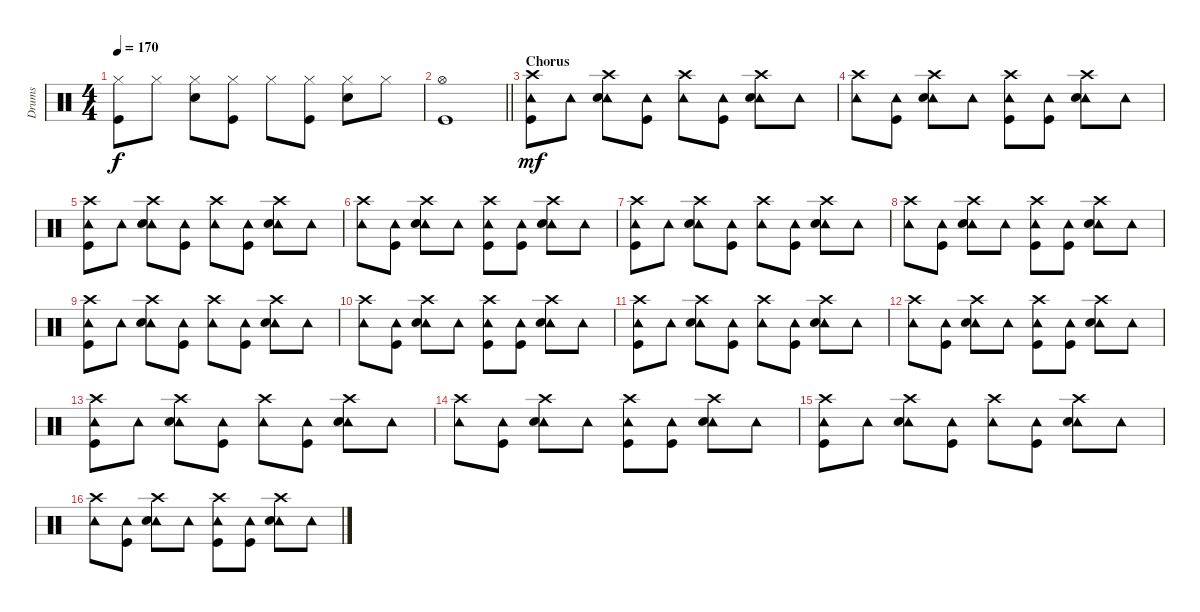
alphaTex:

\track ("Drums" "Drums") {instrument percussion}
\staff {score}
\articulation defaults
\ts (4 4)
\tempo 170
\clef neutral
\ks c
("Hi-Hat (closed)" "Kick (hit)").8{dy f} "Hi-Hat (closed)".8 ("Hi-Hat (closed)" "Snare (hit) 2").8 ("Hi-Hat (closed)" "Kick (hit)").8 "Hi-Hat (closed)".8 ("Hi-Hat (closed)" "Kick (hit)").8 ("Hi-Hat (closed)" "Snare (hit) 2").8 "Hi-Hat (closed)".8 |
\barLineRight lightlight
("Hi-Hat (open)" "Kick (hit)").1 |
\section ("" "Chorus")
("Tambourine (hit)" "Crash high (hit)" "Kick (hit)").8{dy mf} "Tambourine (hit)".8 ("Tambourine (hit)" "Crash high (hit)" "Snare (hit) 2").8 ("Tambourine (hit)" "Kick (hit)").8 ("Tambourine (hit)" "Crash high (hit)").8 ("Tambourine (hit)" "Kick (hit)").8 ("Tambourine (hit)" "Crash high (hit)" "Snare (hit) 2").8 "Tambourine (hit)".8 |
("Tambourine (hit)" "Crash high (hit)").8 ("Tambourine (hit)" "Kick (hit)").8 ("Tambourine (hit)" "Crash high (hit)" "Snare (hit) 2").8 "Tambourine (hit)".8 ("Tambourine (hit)" "Crash high (hit)" "Kick (hit)").8 ("Tambourine (hit)" "Kick (hit)").8 ("Tambourine (hit)" "Crash high (hit)" "Snare (hit) 2").8 "Tambourine (hit)".8 |
("Tambourine (hit)" "Crash high (hit)" "Kick (hit)").8 "Tambourine (hit)".8 ("Tambourine (hit)" "Crash high (hit)" "Snare (hit) 2").8 ("Tambourine (hit)" "Kick (hit)").8 ("Tambourine (hit)" "Crash high (hit)").8 ("Tambourine (hit)" "Kick (hit)").8 ("Tambourine (hit)" "Crash high (hit)" "Snare (hit) 2").8 "Tambourine (hit)".8 |
("Tambourine (hit)" "Crash high (hit)").8 ("Tambourine (hit)" "Kick (hit)").8 ("Tambourine (hit)" "Crash high (hit)" "Snare (hit) 2").8 "Tambourine (hit)".8 ("Tambourine (hit)" "Crash high (hit)" "Kick (hit)").8 ("Tambourine (hit)" "Kick (hit)").8 ("Tambourine (hit)" "Crash high (hit)" "Snare (hit) 2").8 "Tambourine (hit)".8 |
("Tambourine (hit)" "Crash high (hit)" "Kick (hit)").8 "Tambourine (hit)".8 ("Tambourine (hit)" "Crash high (hit)" "Snare (hit) 2").8 ("Tambourine (hit)" "Kick (hit)").8 ("Tambourine (hit)" "Crash high (hit)").8 ("Tambourine (hit)" "Kick (hit)").8 ("Tambourine (hit)" "Crash high (hit)" "Snare (hit) 2").8 "Tambourine (hit)".8 |
("Tambourine (hit)" "Crash high (hit)").8 ("Tambourine (hit)" "Kick (hit)").8 ("Tambourine (hit)" "Crash high (hit)" "Snare (hit) 2").8 "Tambourine (hit)".8 ("Tambourine (hit)" "Crash high (hit)" "Kick (hit)").8 ("Tambourine (hit)" "Kick (hit)").8 ("Tambourine (hit)" "Crash high (hit)" "Snare (hit) 2").8 "Tambourine (hit)".8 |
("Tambourine (hit)" "Crash high (hit)" "Kick (hit)").8 "Tambourine (hit)".8 ("Tambourine (hit)" "Crash high (hit)" "Snare (hit) 2").8 ("Tambourine (hit)" "Kick (hit)").8 ("Tambourine (hit)" "Crash high (hit)").8 ("Tambourine (hit)" "Kick (hit)").8 ("Tambourine (hit)" "Crash high (hit)" "Snare (hit) 2").8 "Tambourine (hit)".8 |
("Tambourine (hit)" "Crash high (hit)").8 ("Tambourine (hit)" "Kick (hit)").8 ("Tambourine (hit)" "Crash high (hit)" "Snare (hit) 2").8 "Tambourine (hit)".8 ("Tambourine (hit)" "Crash high (hit)" "Kick (hit)").8 ("Tambourine (hit)" "Kick (hit)").8 ("Tambourine (hit)" "Crash high (hit)" "Snare (hit) 2").8 "Tambourine (hit)".8 |
("Tambourine (hit)" "Crash high (hit)" "Kick (hit)").8 "Tambourine (hit)".8 ("Tambourine (hit)" "Crash high (hit)" "Snare (hit) 2").8 ("Tambourine (hit)" "Kick (hit)").8 ("Tambourine (hit)" "Crash high (hit)").8 ("Tambourine (hit)" "Kick (hit)").8 ("Tambourine (hit)" "Crash high (hit)" "Snare (hit) 2").8 "Tambourine (hit)".8 |
("Tambourine (hit)" "Crash high (hit)").8 ("Tambourine (hit)" "Kick (hit)").8 ("Tambourine (hit)" "Crash high (hit)" "Snare (hit) 2").8 "Tambourine (hit)".8 ("Tambourine (hit)" "Crash high (hit)" "Kick (hit)").8 ("Tambourine (hit)" "Kick (hit)").8 ("Tambourine (hit)" "Crash high (hit)" "Snare (hit) 2").8 "Tambourine (hit)".8 |
("Tambourine (hit)" "Crash high (hit)" "Kick (hit)").8 "Tambourine (hit)".8 ("Tambourine (hit)" "Crash high (hit)" "Snare (hit) 2").8 ("Tambourine (hit)" "Kick (hit)").8 ("Tambourine (hit)" "Crash high (hit)").8 ("Tambourine (hit)" "Kick (hit)").8 ("Tambourine (hit)" "Crash high (hit)" "Snare (hit) 2").8 "Tambourine (hit)".8 |
("Tambourine (hit)" "Crash high (hit)").8 ("Tambourine (hit)" "Kick (hit)").8 ("Tambourine (hit)" "Crash high (hit)" "Snare (hit) 2").8 "Tambourine (hit)".8 ("Tambourine (hit)" "Crash high (hit)" "Kick (hit)").8 ("Tambourine (hit)" "Kick (hit)").8 ("Tambourine (hit)" "Crash high (hit)" "Snare (hit) 2").8 "Tambourine (hit)".8 |
("Tambourine (hit)" "Crash high (hit)" "Kick (hit)").8 "Tambourine (hit)".8 ("Tambourine (hit)" "Crash high (hit)" "Snare (hit) 2").8 ("Tambourine (hit)" "Kick (hit)").8 ("Tambourine (hit)" "Crash high (hit)").8 ("Tambourine (hit)" "Kick (hit)").8 ("Tambourine (hit)" "Crash high (hit)" "Snare (hit) 2").8 "Tambourine (hit)".8 |
("Tambourine (hit)" "Crash high (hit)").8 ("Tambourine (hit)" "Kick (hit)").8 ("Tambourine (hit)" "Crash high (hit)" "Snare (hit) 2").8 "Tambourine (hit)".8 ("Tambourine (hit)" "Crash high (hit)" "Kick (hit)").8 ("Tambourine (hit)" "Kick (hit)").8 ("Tambourine (hit)" "Crash high (hit)" "Snare (hit) 2").8 "Tambourine (hit)".8
